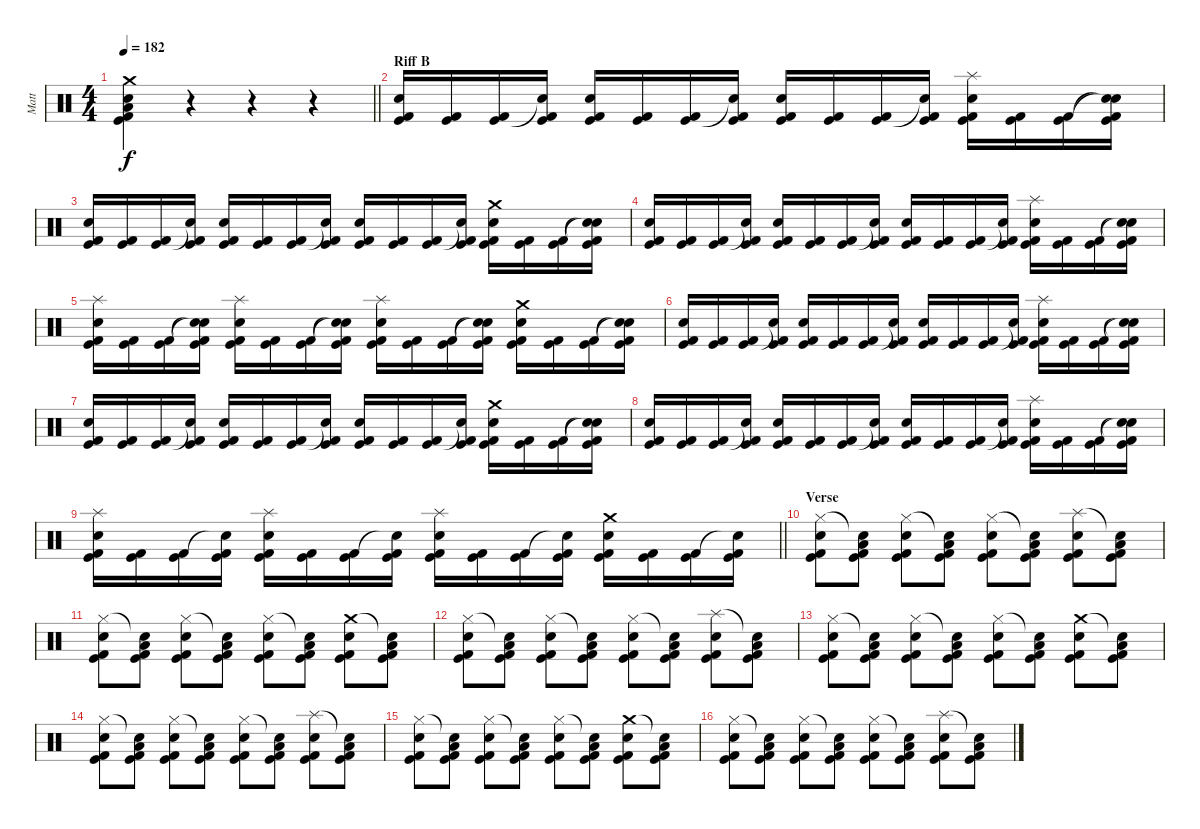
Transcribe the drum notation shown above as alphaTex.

\track ("Matt" "Matt") {instrument percussion}
\staff {score}
\articulation defaults
\ts (4 4)
\tempo 182
\clef neutral
\barLineRight lightlight
\ks c
("Crash medium (hit)" "Electric Snare (hit)" "Low Floor Tom (hit)" "Kick (hit)" "Kick (hit) 2").4{dy f} r.4 r.4 r.4 |
\section ("" "Riff B")
("Electric Snare (hit)" "Kick (hit)" "Kick (hit) 2").16 ("Kick (hit)" "Kick (hit) 2").16 ("Kick (hit)" "Kick (hit) 2").16 ("Snare (hit)"{t} "Kick (hit)" "Kick (hit) 2").16 ("Electric Snare (hit)" "Kick (hit)" "Kick (hit) 2").16 ("Kick (hit)" "Kick (hit) 2").16 ("Kick (hit)" "Kick (hit) 2").16 ("Snare (hit)"{t} "Kick (hit)" "Kick (hit) 2").16 ("Electric Snare (hit)" "Kick (hit)" "Kick (hit) 2").16 ("Kick (hit)" "Kick (hit) 2").16 ("Kick (hit)" "Kick (hit) 2").16 ("Snare (hit)"{t} "Kick (hit)" "Kick (hit) 2").16 ("Splash (hit)" "Electric Snare (hit)" "Kick (hit)" "Kick (hit) 2").16 ("Kick (hit)" "Kick (hit) 2").16 ("Kick (hit)" "Kick (hit) 2").16 ("Snare (hit)"{t} "Snare (hit)"{t} "Kick (hit)" "Kick (hit) 2").16 |
("Electric Snare (hit)" "Kick (hit)" "Kick (hit) 2").16 ("Kick (hit)" "Kick (hit) 2").16 ("Kick (hit)" "Kick (hit) 2").16 ("Snare (hit)"{t} "Kick (hit)" "Kick (hit) 2").16 ("Electric Snare (hit)" "Kick (hit)" "Kick (hit) 2").16 ("Kick (hit)" "Kick (hit) 2").16 ("Kick (hit)" "Kick (hit) 2").16 ("Snare (hit)"{t} "Kick (hit)" "Kick (hit) 2").16 ("Electric Snare (hit)" "Kick (hit)" "Kick (hit) 2").16 ("Kick (hit)" "Kick (hit) 2").16 ("Kick (hit)" "Kick (hit) 2").16 ("Snare (hit)"{t} "Kick (hit)" "Kick (hit) 2").16 ("Crash medium (hit)" "Electric Snare (hit)" "Kick (hit)" "Kick (hit) 2").16 ("Kick (hit)" "Kick (hit) 2").16 ("Kick (hit)" "Kick (hit) 2").16 ("Snare (hit)"{t} "Snare (hit)"{t} "Kick (hit)" "Kick (hit) 2").16 |
("Electric Snare (hit)" "Kick (hit)" "Kick (hit) 2").16 ("Kick (hit)" "Kick (hit) 2").16 ("Kick (hit)" "Kick (hit) 2").16 ("Snare (hit)"{t} "Kick (hit)" "Kick (hit) 2").16 ("Electric Snare (hit)" "Kick (hit)" "Kick (hit) 2").16 ("Kick (hit)" "Kick (hit) 2").16 ("Kick (hit)" "Kick (hit) 2").16 ("Snare (hit)"{t} "Kick (hit)" "Kick (hit) 2").16 ("Electric Snare (hit)" "Kick (hit)" "Kick (hit) 2").16 ("Kick (hit)" "Kick (hit) 2").16 ("Kick (hit)" "Kick (hit) 2").16 ("Snare (hit)"{t} "Kick (hit)" "Kick (hit) 2").16 ("Splash (hit)" "Electric Snare (hit)" "Kick (hit)" "Kick (hit) 2").16 ("Kick (hit)" "Kick (hit) 2").16 ("Kick (hit)" "Kick (hit) 2").16 ("Snare (hit)"{t} "Snare (hit)"{t} "Kick (hit)" "Kick (hit) 2").16 |
("Splash (hit)" "Electric Snare (hit)" "Kick (hit)" "Kick (hit) 2").16 ("Kick (hit)" "Kick (hit) 2").16 ("Kick (hit)" "Kick (hit) 2").16 ("Snare (hit)"{t} "Snare (hit)"{t} "Kick (hit)" "Kick (hit) 2").16 ("Splash (hit)" "Electric Snare (hit)" "Kick (hit)" "Kick (hit) 2").16 ("Kick (hit)" "Kick (hit) 2").16 ("Kick (hit)" "Kick (hit) 2").16 ("Snare (hit)"{t} "Snare (hit)"{t} "Kick (hit)" "Kick (hit) 2").16 ("Splash (hit)" "Electric Snare (hit)" "Kick (hit)" "Kick (hit) 2").16 ("Kick (hit)" "Kick (hit) 2").16 ("Kick (hit)" "Kick (hit) 2").16 ("Snare (hit)"{t} "Snare (hit)"{t} "Kick (hit)" "Kick (hit) 2").16 ("Crash medium (hit)" "Electric Snare (hit)" "Kick (hit)" "Kick (hit) 2").16 ("Kick (hit)" "Kick (hit) 2").16 ("Kick (hit)" "Kick (hit) 2").16 ("Snare (hit)"{t} "Snare (hit)"{t} "Kick (hit)" "Kick (hit) 2").16 |
("Electric Snare (hit)" "Kick (hit)" "Kick (hit) 2").16 ("Kick (hit)" "Kick (hit) 2").16 ("Kick (hit)" "Kick (hit) 2").16 ("Snare (hit)"{t} "Kick (hit)" "Kick (hit) 2").16 ("Electric Snare (hit)" "Kick (hit)" "Kick (hit) 2").16 ("Kick (hit)" "Kick (hit) 2").16 ("Kick (hit)" "Kick (hit) 2").16 ("Snare (hit)"{t} "Kick (hit)" "Kick (hit) 2").16 ("Electric Snare (hit)" "Kick (hit)" "Kick (hit) 2").16 ("Kick (hit)" "Kick (hit) 2").16 ("Kick (hit)" "Kick (hit) 2").16 ("Snare (hit)"{t} "Kick (hit)" "Kick (hit) 2").16 ("Splash (hit)" "Electric Snare (hit)" "Kick (hit)" "Kick (hit) 2").16 ("Kick (hit)" "Kick (hit) 2").16 ("Kick (hit)" "Kick (hit) 2").16 ("Snare (hit)"{t} "Snare (hit)"{t} "Kick (hit)" "Kick (hit) 2").16 |
("Electric Snare (hit)" "Kick (hit)" "Kick (hit) 2").16 ("Kick (hit)" "Kick (hit) 2").16 ("Kick (hit)" "Kick (hit) 2").16 ("Snare (hit)"{t} "Kick (hit)" "Kick (hit) 2").16 ("Electric Snare (hit)" "Kick (hit)" "Kick (hit) 2").16 ("Kick (hit)" "Kick (hit) 2").16 ("Kick (hit)" "Kick (hit) 2").16 ("Snare (hit)"{t} "Kick (hit)" "Kick (hit) 2").16 ("Electric Snare (hit)" "Kick (hit)" "Kick (hit) 2").16 ("Kick (hit)" "Kick (hit) 2").16 ("Kick (hit)" "Kick (hit) 2").16 ("Snare (hit)"{t} "Kick (hit)" "Kick (hit) 2").16 ("Crash medium (hit)" "Electric Snare (hit)" "Kick (hit)" "Kick (hit) 2").16 ("Kick (hit)" "Kick (hit) 2").16 ("Kick (hit)" "Kick (hit) 2").16 ("Snare (hit)"{t} "Snare (hit)"{t} "Kick (hit)" "Kick (hit) 2").16 |
("Electric Snare (hit)" "Kick (hit)" "Kick (hit) 2").16 ("Kick (hit)" "Kick (hit) 2").16 ("Kick (hit)" "Kick (hit) 2").16 ("Snare (hit)"{t} "Kick (hit)" "Kick (hit) 2").16 ("Electric Snare (hit)" "Kick (hit)" "Kick (hit) 2").16 ("Kick (hit)" "Kick (hit) 2").16 ("Kick (hit)" "Kick (hit) 2").16 ("Snare (hit)"{t} "Kick (hit)" "Kick (hit) 2").16 ("Electric Snare (hit)" "Kick (hit)" "Kick (hit) 2").16 ("Kick (hit)" "Kick (hit) 2").16 ("Kick (hit)" "Kick (hit) 2").16 ("Snare (hit)"{t} "Kick (hit)" "Kick (hit) 2").16 ("Splash (hit)" "Electric Snare (hit)" "Kick (hit)" "Kick (hit) 2").16 ("Kick (hit)" "Kick (hit) 2").16 ("Kick (hit)" "Kick (hit) 2").16 ("Snare (hit)"{t} "Snare (hit)"{t} "Kick (hit)" "Kick (hit) 2").16 |
\barLineRight lightlight
("Splash (hit)" "Electric Snare (hit)" "Kick (hit)" "Kick (hit) 2").16 ("Kick (hit)" "Kick (hit) 2").16 ("Kick (hit)" "Kick (hit) 2").16 ("Snare (hit)"{t} "Kick (hit)" "Kick (hit) 2").16 ("Splash (hit)" "Electric Snare (hit)" "Kick (hit)" "Kick (hit) 2").16 ("Kick (hit)" "Kick (hit) 2").16 ("Kick (hit)" "Kick (hit) 2").16 ("Snare (hit)"{t} "Kick (hit)" "Kick (hit) 2").16 ("Splash (hit)" "Electric Snare (hit)" "Kick (hit)" "Kick (hit) 2").16 ("Kick (hit)" "Kick (hit) 2").16 ("Kick (hit)" "Kick (hit) 2").16 ("Snare (hit)"{t} "Kick (hit)" "Kick (hit) 2").16 ("Crash medium (hit)" "Electric Snare (hit)" "Kick (hit)" "Kick (hit) 2").16 ("Kick (hit)" "Kick (hit) 2").16 ("Kick (hit)" "Kick (hit) 2").16 ("Snare (hit)"{t} "Kick (hit)" "Kick (hit) 2").16 |
\section ("" "Verse")
("Hi-Hat (closed)" "Electric Snare (hit)" "Kick (hit)" "Kick (hit) 2").8 ("Snare (hit)"{t} "Low Floor Tom (hit)" "Kick (hit)" "Kick (hit) 2").8 ("Hi-Hat (closed)" "Electric Snare (hit)" "Kick (hit)" "Kick (hit) 2").8 ("Snare (hit)"{t} "Low Floor Tom (hit)" "Kick (hit)" "Kick (hit) 2").8 ("Hi-Hat (closed)" "Electric Snare (hit)" "Kick (hit)" "Kick (hit) 2").8 ("Snare (hit)"{t} "Low Floor Tom (hit)" "Kick (hit)" "Kick (hit) 2").8 ("Splash (hit)" "Electric Snare (hit)" "Kick (hit)" "Kick (hit) 2").8 ("Snare (hit)"{t} "Low Floor Tom (hit)" "Kick (hit)" "Kick (hit) 2").8 |
("Hi-Hat (closed)" "Electric Snare (hit)" "Kick (hit)" "Kick (hit) 2").8 ("Snare (hit)"{t} "Low Floor Tom (hit)" "Kick (hit)" "Kick (hit) 2").8 ("Hi-Hat (closed)" "Electric Snare (hit)" "Kick (hit)" "Kick (hit) 2").8 ("Snare (hit)"{t} "Low Floor Tom (hit)" "Kick (hit)" "Kick (hit) 2").8 ("Hi-Hat (closed)" "Electric Snare (hit)" "Kick (hit)" "Kick (hit) 2").8 ("Snare (hit)"{t} "Low Floor Tom (hit)" "Kick (hit)" "Kick (hit) 2").8 ("Crash medium (hit)" "Electric Snare (hit)" "Kick (hit)" "Kick (hit) 2").8 ("Snare (hit)"{t} "Low Floor Tom (hit)" "Kick (hit)" "Kick (hit) 2").8 |
("Hi-Hat (closed)" "Electric Snare (hit)" "Kick (hit)" "Kick (hit) 2").8 ("Snare (hit)"{t} "Low Floor Tom (hit)" "Kick (hit)" "Kick (hit) 2").8 ("Hi-Hat (closed)" "Electric Snare (hit)" "Kick (hit)" "Kick (hit) 2").8 ("Snare (hit)"{t} "Low Floor Tom (hit)" "Kick (hit)" "Kick (hit) 2").8 ("Hi-Hat (closed)" "Electric Snare (hit)" "Kick (hit)" "Kick (hit) 2").8 ("Snare (hit)"{t} "Low Floor Tom (hit)" "Kick (hit)" "Kick (hit) 2").8 ("Splash (hit)" "Electric Snare (hit)" "Kick (hit)" "Kick (hit) 2").8 ("Snare (hit)"{t} "Low Floor Tom (hit)" "Kick (hit)" "Kick (hit) 2").8 |
("Hi-Hat (closed)" "Electric Snare (hit)" "Kick (hit)" "Kick (hit) 2").8 ("Snare (hit)"{t} "Low Floor Tom (hit)" "Kick (hit)" "Kick (hit) 2").8 ("Hi-Hat (closed)" "Electric Snare (hit)" "Kick (hit)" "Kick (hit) 2").8 ("Snare (hit)"{t} "Low Floor Tom (hit)" "Kick (hit)" "Kick (hit) 2").8 ("Hi-Hat (closed)" "Electric Snare (hit)" "Kick (hit)" "Kick (hit) 2").8 ("Snare (hit)"{t} "Low Floor Tom (hit)" "Kick (hit)" "Kick (hit) 2").8 ("Crash medium (hit)" "Electric Snare (hit)" "Kick (hit)" "Kick (hit) 2").8 ("Snare (hit)"{t} "Low Floor Tom (hit)" "Kick (hit)" "Kick (hit) 2").8 |
("Hi-Hat (closed)" "Electric Snare (hit)" "Kick (hit)" "Kick (hit) 2").8 ("Snare (hit)"{t} "Low Floor Tom (hit)" "Kick (hit)" "Kick (hit) 2").8 ("Hi-Hat (closed)" "Electric Snare (hit)" "Kick (hit)" "Kick (hit) 2").8 ("Snare (hit)"{t} "Low Floor Tom (hit)" "Kick (hit)" "Kick (hit) 2").8 ("Hi-Hat (closed)" "Electric Snare (hit)" "Kick (hit)" "Kick (hit) 2").8 ("Snare (hit)"{t} "Low Floor Tom (hit)" "Kick (hit)" "Kick (hit) 2").8 ("Splash (hit)" "Electric Snare (hit)" "Kick (hit)" "Kick (hit) 2").8 ("Snare (hit)"{t} "Low Floor Tom (hit)" "Kick (hit)" "Kick (hit) 2").8 |
("Hi-Hat (closed)" "Electric Snare (hit)" "Kick (hit)" "Kick (hit) 2").8 ("Snare (hit)"{t} "Low Floor Tom (hit)" "Kick (hit)" "Kick (hit) 2").8 ("Hi-Hat (closed)" "Electric Snare (hit)" "Kick (hit)" "Kick (hit) 2").8 ("Snare (hit)"{t} "Low Floor Tom (hit)" "Kick (hit)" "Kick (hit) 2").8 ("Hi-Hat (closed)" "Electric Snare (hit)" "Kick (hit)" "Kick (hit) 2").8 ("Snare (hit)"{t} "Low Floor Tom (hit)" "Kick (hit)" "Kick (hit) 2").8 ("Crash medium (hit)" "Electric Snare (hit)" "Kick (hit)" "Kick (hit) 2").8 ("Snare (hit)"{t} "Low Floor Tom (hit)" "Kick (hit)" "Kick (hit) 2").8 |
("Hi-Hat (closed)" "Electric Snare (hit)" "Kick (hit)" "Kick (hit) 2").8 ("Snare (hit)"{t} "Low Floor Tom (hit)" "Kick (hit)" "Kick (hit) 2").8 ("Hi-Hat (closed)" "Electric Snare (hit)" "Kick (hit)" "Kick (hit) 2").8 ("Snare (hit)"{t} "Low Floor Tom (hit)" "Kick (hit)" "Kick (hit) 2").8 ("Hi-Hat (closed)" "Electric Snare (hit)" "Kick (hit)" "Kick (hit) 2").8 ("Snare (hit)"{t} "Low Floor Tom (hit)" "Kick (hit)" "Kick (hit) 2").8 ("Splash (hit)" "Electric Snare (hit)" "Kick (hit)" "Kick (hit) 2").8 ("Snare (hit)"{t} "Low Floor Tom (hit)" "Kick (hit)" "Kick (hit) 2").8
